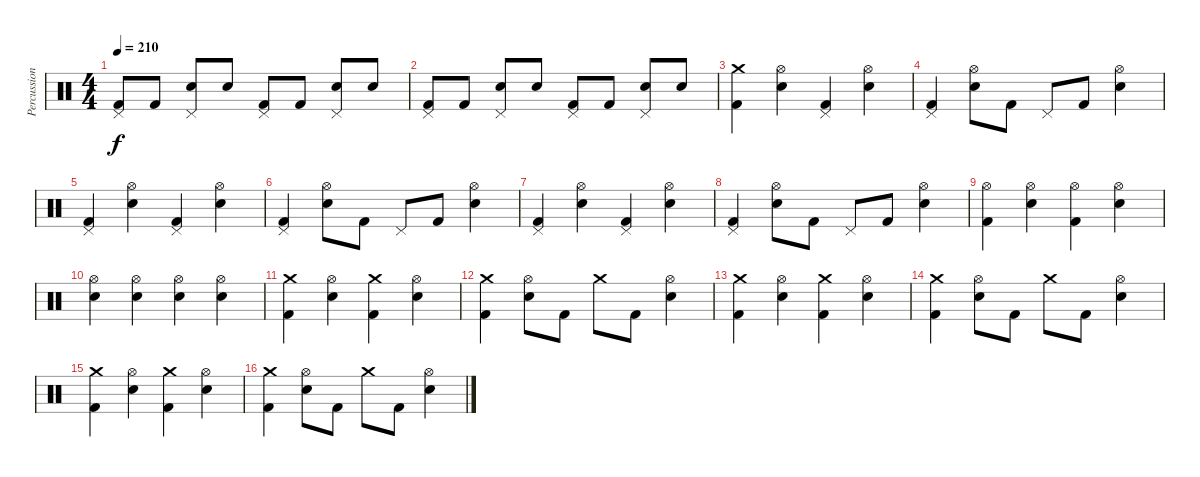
\track ("Percussion" "Percussion") {instrument percussion}
\staff {score}
\articulation defaults
\ts (4 4)
\tempo 210
\clef neutral
\ks c
("Pedal Hi-Hat (hit)" "Kick (hit) 2").8{dy f} "Kick (hit) 2".8 ("Pedal Hi-Hat (hit)" "Electric Snare (hit)").8 "Electric Snare (hit)".8 ("Pedal Hi-Hat (hit)" "Kick (hit) 2").8 "Kick (hit) 2".8 ("Pedal Hi-Hat (hit)" "Electric Snare (hit)").8 "Electric Snare (hit)".8 |
("Pedal Hi-Hat (hit)" "Kick (hit) 2").8 "Kick (hit) 2".8 ("Pedal Hi-Hat (hit)" "Electric Snare (hit)").8 "Electric Snare (hit)".8 ("Pedal Hi-Hat (hit)" "Kick (hit) 2").8 "Kick (hit) 2".8 ("Pedal Hi-Hat (hit)" "Electric Snare (hit)").8 "Electric Snare (hit)".8 |
("Crash medium (hit)" "Kick (hit) 2").4 ("Hi-Hat (open)" "Electric Snare (hit)").4 ("Pedal Hi-Hat (hit)" "Kick (hit) 2").4 ("Hi-Hat (open)" "Electric Snare (hit)").4 |
("Pedal Hi-Hat (hit)" "Kick (hit) 2").4 ("Hi-Hat (open)" "Electric Snare (hit)").8 "Kick (hit) 2".8 "Pedal Hi-Hat (hit)".8 "Kick (hit) 2".8 ("Hi-Hat (open)" "Electric Snare (hit)").4 |
("Pedal Hi-Hat (hit)" "Kick (hit) 2").4 ("Hi-Hat (open)" "Electric Snare (hit)").4 ("Pedal Hi-Hat (hit)" "Kick (hit) 2").4 ("Hi-Hat (open)" "Electric Snare (hit)").4 |
("Pedal Hi-Hat (hit)" "Kick (hit) 2").4 ("Hi-Hat (open)" "Electric Snare (hit)").8 "Kick (hit) 2".8 "Pedal Hi-Hat (hit)".8 "Kick (hit) 2".8 ("Hi-Hat (open)" "Electric Snare (hit)").4 |
("Pedal Hi-Hat (hit)" "Kick (hit) 2").4 ("Hi-Hat (open)" "Electric Snare (hit)").4 ("Pedal Hi-Hat (hit)" "Kick (hit) 2").4 ("Hi-Hat (open)" "Electric Snare (hit)").4 |
("Pedal Hi-Hat (hit)" "Kick (hit) 2").4 ("Hi-Hat (open)" "Electric Snare (hit)").8 "Kick (hit) 2".8 "Pedal Hi-Hat (hit)".8 "Kick (hit) 2".8 ("Hi-Hat (open)" "Electric Snare (hit)").4 |
("Hi-Hat (open)" "Kick (hit) 2").4 ("Hi-Hat (open)" "Electric Snare (hit)").4 ("Hi-Hat (open)" "Kick (hit) 2").4 ("Hi-Hat (open)" "Electric Snare (hit)").4 |
("Hi-Hat (open)" "Electric Snare (hit)").4 ("Hi-Hat (open)" "Electric Snare (hit)").4 ("Hi-Hat (open)" "Electric Snare (hit)").4 ("Hi-Hat (open)" "Electric Snare (hit)").4 |
("Crash medium (hit)" "Kick (hit) 2").4 ("Hi-Hat (open)" "Electric Snare (hit)").4 ("Crash medium (hit)" "Kick (hit) 2").4 ("Hi-Hat (open)" "Electric Snare (hit)").4 |
("Crash medium (hit)" "Kick (hit) 2").4 ("Hi-Hat (open)" "Electric Snare (hit)").8 "Kick (hit) 2".8 "Crash medium (hit)".8 "Kick (hit) 2".8 ("Hi-Hat (open)" "Electric Snare (hit)").4 |
("Crash medium (hit)" "Kick (hit) 2").4 ("Hi-Hat (open)" "Electric Snare (hit)").4 ("Crash medium (hit)" "Kick (hit) 2").4 ("Hi-Hat (open)" "Electric Snare (hit)").4 |
("Crash medium (hit)" "Kick (hit) 2").4 ("Hi-Hat (open)" "Electric Snare (hit)").8 "Kick (hit) 2".8 "Crash medium (hit)".8 "Kick (hit) 2".8 ("Hi-Hat (open)" "Electric Snare (hit)").4 |
("Crash medium (hit)" "Kick (hit) 2").4 ("Hi-Hat (open)" "Electric Snare (hit)").4 ("Crash medium (hit)" "Kick (hit) 2").4 ("Hi-Hat (open)" "Electric Snare (hit)").4 |
("Crash medium (hit)" "Kick (hit) 2").4 ("Hi-Hat (open)" "Electric Snare (hit)").8 "Kick (hit) 2".8 "Crash medium (hit)".8 "Kick (hit) 2".8 ("Hi-Hat (open)" "Electric Snare (hit)").4
